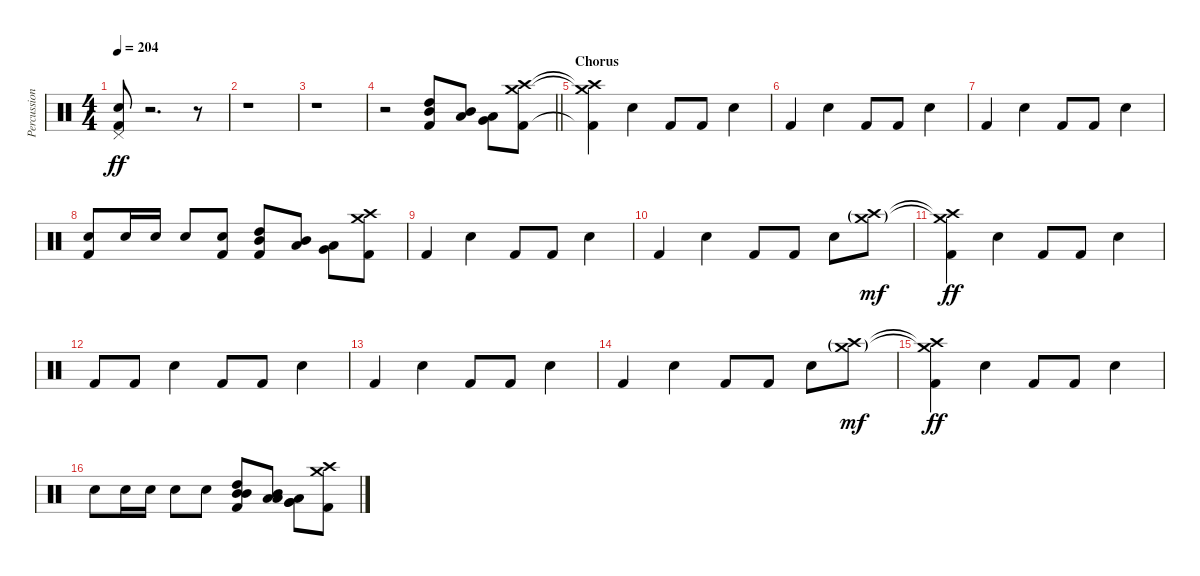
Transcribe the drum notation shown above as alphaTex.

\track ("Percussion" "Percussion") {instrument percussion}
\staff {score}
\articulation defaults
\ts (4 4)
\tempo 204
\clef neutral
\ks c
("Electric Snare (hit)" "Pedal Hi-Hat (hit)" "Kick (hit) 2").8{dy ff} r.2{d} r.8 |
r.1 |
r.1 |
\barLineRight lightlight
r.2 ("High Tom (hit)" "Mid Tom (hit)" "Kick (hit) 2").8 ("Mid Tom (hit)" "Low Tom (hit)").8 ("Low Tom (hit)" "Very Low Tom (hit)").8 ("Crash medium (hit)" "Crash high (hit)" "Kick (hit) 2").8 |
\section ("" "Chorus")
("Crash medium (hit)"{t} "Crash high (hit)"{t} "Kick (hit) 2"{t}).4 "Electric Snare (hit)".4 "Kick (hit) 2".8 "Kick (hit) 2".8 "Electric Snare (hit)".4 |
"Kick (hit) 2".4 "Electric Snare (hit)".4 "Kick (hit) 2".8 "Kick (hit) 2".8 "Electric Snare (hit)".4 |
"Kick (hit) 2".4 "Electric Snare (hit)".4 "Kick (hit) 2".8 "Kick (hit) 2".8 "Electric Snare (hit)".4 |
("Electric Snare (hit)" "Kick (hit) 2").8 "Electric Snare (hit)".16 "Electric Snare (hit)".16 "Electric Snare (hit)".8 ("Electric Snare (hit)" "Kick (hit) 2").8 ("High Tom (hit)" "Mid Tom (hit)" "Kick (hit) 2").8 ("Mid Tom (hit)" "Low Tom (hit)").8 ("Low Tom (hit)" "Very Low Tom (hit)").8 ("Crash medium (hit)" "Crash high (hit)" "Kick (hit) 2").8 |
"Kick (hit) 2".4 "Electric Snare (hit)".4 "Kick (hit) 2".8 "Kick (hit) 2".8 "Electric Snare (hit)".4 |
"Kick (hit) 2".4 "Electric Snare (hit)".4 "Kick (hit) 2".8 "Kick (hit) 2".8 "Electric Snare (hit)".8 ("Crash medium (hit)"{g} "Crash high (hit)"{g}).8{dy mf} |
("Crash medium (hit)"{t} "Crash high (hit)"{t} "Kick (hit) 2").4{dy ff} "Electric Snare (hit)".4 "Kick (hit) 2".8 "Kick (hit) 2".8 "Electric Snare (hit)".4 |
"Kick (hit) 2".8 "Kick (hit) 2".8 "Electric Snare (hit)".4 "Kick (hit) 2".8 "Kick (hit) 2".8 "Electric Snare (hit)".4 |
"Kick (hit) 2".4 "Electric Snare (hit)".4 "Kick (hit) 2".8 "Kick (hit) 2".8 "Electric Snare (hit)".4 |
"Kick (hit) 2".4 "Electric Snare (hit)".4 "Kick (hit) 2".8 "Kick (hit) 2".8 "Electric Snare (hit)".8 ("Crash medium (hit)"{g} "Crash high (hit)"{g}).8{dy mf} |
("Crash medium (hit)"{t} "Crash high (hit)"{t} "Kick (hit) 2").4{dy ff} "Electric Snare (hit)".4 "Kick (hit) 2".8 "Kick (hit) 2".8 "Electric Snare (hit)".4 |
"Electric Snare (hit)".8 "Electric Snare (hit)".16 "Electric Snare (hit)".16 "Electric Snare (hit)".8 "Electric Snare (hit)".8 ("High Tom (hit)" "Mid Tom (hit)" "Mid Tom (hit)" "Kick (hit) 2").8 ("Mid Tom (hit)" "Low Tom (hit)" "Low Tom (hit)").8 ("Low Tom (hit)" "Very Low Tom (hit)" "Very Low Tom (hit)").8 ("Crash medium (hit)" "Crash high (hit)" "Kick (hit) 2").8
